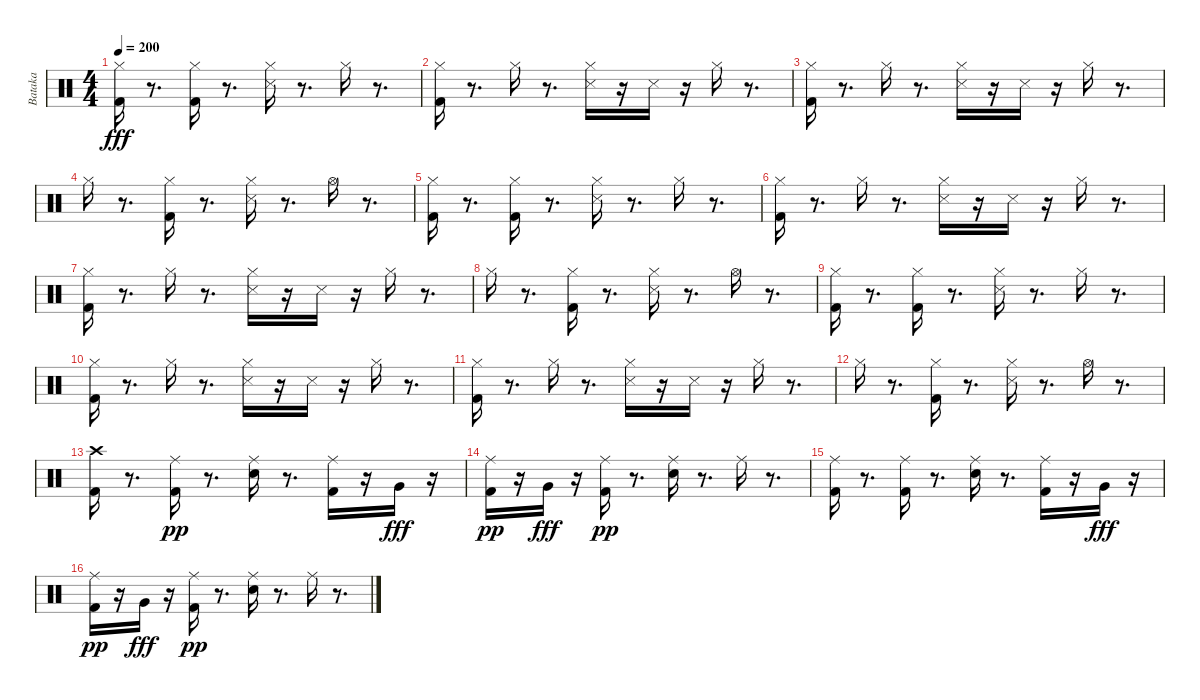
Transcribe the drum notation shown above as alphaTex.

\track ("Bataka" "Bataka") {instrument percussion}
\staff {score}
\articulation defaults
\ts (4 4)
\tempo 200
\clef neutral
\ks c
("Kick (hit) 2" "Hi-Hat (closed)").16{dy fff} r.8{d} ("Kick (hit) 2" "Hi-Hat (closed)").16 r.8{d} ("Hi-Hat (closed)" "Snare (side stick) 3").16 r.8{d} "Hi-Hat (closed)".16 r.8{d} |
("Hi-Hat (closed)" "Kick (hit) 2").16 r.8{d} "Hi-Hat (closed)".16 r.8{d} ("Hi-Hat (closed)" "Snare (side stick) 3").16 r.16 "Snare (side stick) 3".16 r.16 "Hi-Hat (closed)".16 r.8{d} |
("Hi-Hat (closed)" "Kick (hit) 2").16 r.8{d} "Hi-Hat (closed)".16 r.8{d} ("Hi-Hat (closed)" "Snare (side stick) 3").16 r.16 "Snare (side stick) 3".16 r.16 "Hi-Hat (closed)".16 r.8{d} |
"Hi-Hat (closed)".16 r.8{d} ("Hi-Hat (closed)" "Kick (hit) 2").16 r.8{d} ("Snare (side stick) 3" "Hi-Hat (closed)").16 r.8{d} "Hi-Hat (open)".16 r.8{d} |
("Kick (hit) 2" "Hi-Hat (closed)").16 r.8{d} ("Kick (hit) 2" "Hi-Hat (closed)").16 r.8{d} ("Hi-Hat (closed)" "Snare (side stick) 3").16 r.8{d} "Hi-Hat (closed)".16 r.8{d} |
("Hi-Hat (closed)" "Kick (hit) 2").16 r.8{d} "Hi-Hat (closed)".16 r.8{d} ("Hi-Hat (closed)" "Snare (side stick) 3").16 r.16 "Snare (side stick) 3".16 r.16 "Hi-Hat (closed)".16 r.8{d} |
("Hi-Hat (closed)" "Kick (hit) 2").16 r.8{d} "Hi-Hat (closed)".16 r.8{d} ("Hi-Hat (closed)" "Snare (side stick) 3").16 r.16 "Snare (side stick) 3".16 r.16 "Hi-Hat (closed)".16 r.8{d} |
"Hi-Hat (closed)".16 r.8{d} ("Hi-Hat (closed)" "Kick (hit) 2").16 r.8{d} ("Snare (side stick) 3" "Hi-Hat (closed)").16 r.8{d} "Hi-Hat (open)".16 r.8{d} |
("Kick (hit) 2" "Hi-Hat (closed)").16 r.8{d} ("Kick (hit) 2" "Hi-Hat (closed)").16 r.8{d} ("Hi-Hat (closed)" "Snare (side stick) 3").16 r.8{d} "Hi-Hat (closed)".16 r.8{d} |
("Hi-Hat (closed)" "Kick (hit) 2").16 r.8{d} "Hi-Hat (closed)".16 r.8{d} ("Hi-Hat (closed)" "Snare (side stick) 3").16 r.16 "Snare (side stick) 3".16 r.16 "Hi-Hat (closed)".16 r.8{d} |
("Hi-Hat (closed)" "Kick (hit) 2").16 r.8{d} "Hi-Hat (closed)".16 r.8{d} ("Hi-Hat (closed)" "Snare (side stick) 3").16 r.16 "Snare (side stick) 3".16 r.16 "Hi-Hat (closed)".16 r.8{d} |
"Hi-Hat (closed)".16 r.8{d} ("Hi-Hat (closed)" "Kick (hit) 2").16 r.8{d} ("Snare (side stick) 3" "Hi-Hat (closed)").16 r.8{d} "Hi-Hat (open)".16 r.8{d} |
("Crash high (hit)" "Kick (hit) 2").16 r.8{d} ("Kick (hit) 2" "Ride (middle)").16{dy pp} r.8{d} ("Electric Snare (hit)" "Ride (middle)").16 r.8{d} ("Kick (hit) 2" "Ride (middle)").16 r.16 "Very Low Tom (hit)".16{dy fff} r.16 |
("Kick (hit) 2" "Ride (middle)").16{dy pp} r.16 "Very Low Tom (hit)".16{dy fff} r.16 ("Kick (hit) 2" "Ride (middle)").16{dy pp} r.8{d} ("Electric Snare (hit)" "Ride (middle)").16 r.8{d} "Ride (middle)".16 r.8{d} |
("Kick (hit) 2" "Ride (middle)").16 r.8{d} ("Kick (hit) 2" "Ride (middle)").16 r.8{d} ("Electric Snare (hit)" "Ride (middle)").16 r.8{d} ("Kick (hit) 2" "Ride (middle)").16 r.16 "Very Low Tom (hit)".16{dy fff} r.16 |
("Kick (hit) 2" "Ride (middle)").16{dy pp} r.16 "Very Low Tom (hit)".16{dy fff} r.16 ("Kick (hit) 2" "Ride (middle)").16{dy pp} r.8{d} ("Electric Snare (hit)" "Ride (middle)").16 r.8{d} "Ride (middle)".16 r.8{d}
